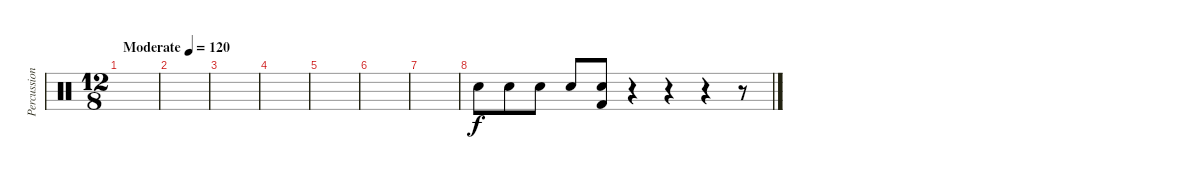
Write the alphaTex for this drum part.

\track ("Percussioni" "Percussion") {instrument percussion}
\staff {score}
\articulation defaults
\ts (12 8)
\tempo (120 "Moderate")
\clef neutral
\ks c
|
|
|
|
|
|
|
"Snare (hit) 2".8 "Snare (hit) 2".8 "Snare (hit) 2".8 "Snare (hit) 2".8 ("Snare (hit) 2" "Kick (hit) 2").8 r.4 r.4 r.4 r.8
